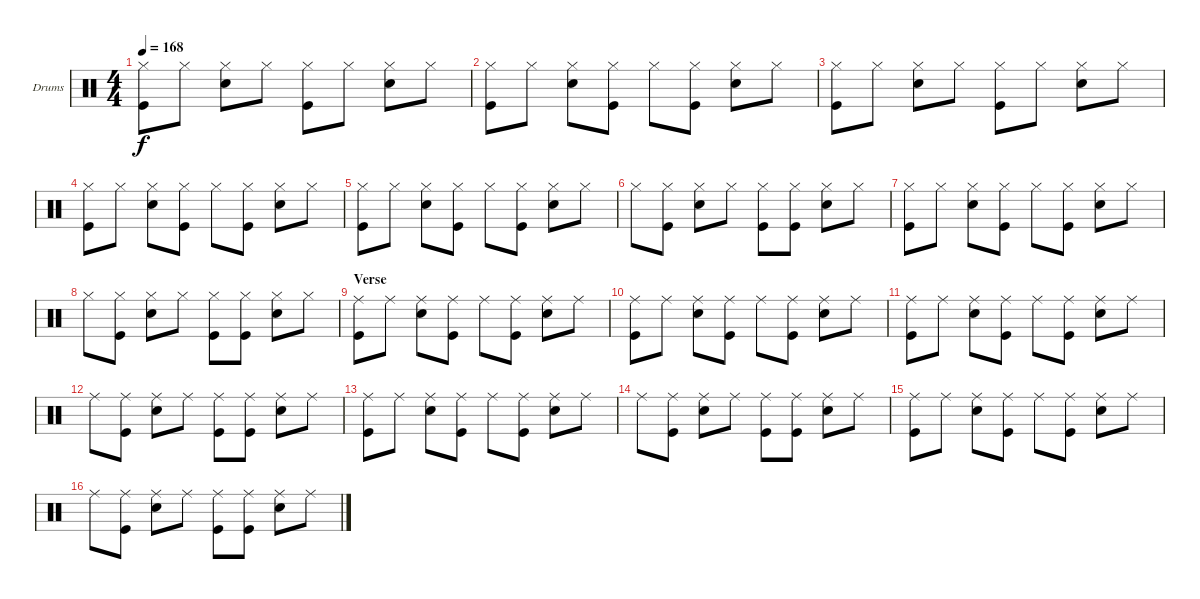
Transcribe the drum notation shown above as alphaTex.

\bracketExtendMode groupsimilarinstruments
\firstSystemTrackNameOrientation horizontal
\otherSystemsTrackNameOrientation horizontal
\track ("Drumkit" "Drums") {instrument percussion}
\staff {score}
\articulation defaults
\ts (4 4)
\tempo 168
\clef neutral
\ks c
("Kick (hit)" "Hi-Hat (closed)").8{dy f} "Hi-Hat (closed)".8 ("Snare (hit) 2" "Hi-Hat (closed)").8 "Hi-Hat (closed)".8 ("Hi-Hat (closed)" "Kick (hit)").8 "Hi-Hat (closed)".8 ("Snare (hit) 2" "Hi-Hat (closed)").8 "Hi-Hat (closed)".8 |
("Kick (hit)" "Hi-Hat (closed)").8 "Hi-Hat (closed)".8 ("Snare (hit) 2" "Hi-Hat (closed)").8 ("Kick (hit)" "Hi-Hat (closed)").8 "Hi-Hat (closed)".8 ("Kick (hit)" "Hi-Hat (closed)").8 ("Snare (hit) 2" "Hi-Hat (closed)").8 "Hi-Hat (closed)".8 |
("Kick (hit)" "Hi-Hat (closed)").8 "Hi-Hat (closed)".8 ("Snare (hit) 2" "Hi-Hat (closed)").8 "Hi-Hat (closed)".8 ("Hi-Hat (closed)" "Kick (hit)").8 "Hi-Hat (closed)".8 ("Snare (hit) 2" "Hi-Hat (closed)").8 "Hi-Hat (closed)".8 |
("Kick (hit)" "Hi-Hat (closed)").8 "Hi-Hat (closed)".8 ("Snare (hit) 2" "Hi-Hat (closed)").8 ("Kick (hit)" "Hi-Hat (closed)").8 "Hi-Hat (closed)".8 ("Kick (hit)" "Hi-Hat (closed)").8 ("Snare (hit) 2" "Hi-Hat (closed)").8 "Hi-Hat (closed)".8 |
("Kick (hit)" "Hi-Hat (closed)").8 "Hi-Hat (closed)".8 ("Snare (hit) 2" "Hi-Hat (closed)").8 ("Kick (hit)" "Hi-Hat (closed)").8 "Hi-Hat (closed)".8 ("Kick (hit)" "Hi-Hat (closed)").8 ("Snare (hit) 2" "Hi-Hat (closed)").8 "Hi-Hat (closed)".8 |
"Hi-Hat (closed)".8 ("Hi-Hat (closed)" "Kick (hit)").8 ("Snare (hit) 2" "Hi-Hat (closed)").8 "Hi-Hat (closed)".8 ("Hi-Hat (closed)" "Kick (hit)").8 ("Kick (hit)" "Hi-Hat (closed)").8 ("Snare (hit) 2" "Hi-Hat (closed)").8 "Hi-Hat (closed)".8 |
("Kick (hit)" "Hi-Hat (closed)").8 "Hi-Hat (closed)".8 ("Snare (hit) 2" "Hi-Hat (closed)").8 ("Kick (hit)" "Hi-Hat (closed)").8 "Hi-Hat (closed)".8 ("Kick (hit)" "Hi-Hat (closed)").8 ("Snare (hit) 2" "Hi-Hat (closed)").8 "Hi-Hat (closed)".8 |
"Hi-Hat (closed)".8 ("Hi-Hat (closed)" "Kick (hit)").8 ("Snare (hit) 2" "Hi-Hat (closed)").8 "Hi-Hat (closed)".8 ("Hi-Hat (closed)" "Kick (hit)").8 ("Kick (hit)" "Hi-Hat (closed)").8 ("Snare (hit) 2" "Hi-Hat (closed)").8 "Hi-Hat (closed)".8 |
\section ("" "Verse")
("Kick (hit)" "Ride (middle)").8 "Ride (middle)".8 ("Snare (hit) 2" "Ride (middle)").8 ("Kick (hit)" "Ride (middle)").8 "Ride (middle)".8 ("Kick (hit)" "Ride (middle)").8 ("Snare (hit) 2" "Ride (middle)").8 "Ride (middle)".8 |
("Kick (hit)" "Ride (middle)").8 "Ride (middle)".8 ("Snare (hit) 2" "Ride (middle)").8 ("Kick (hit)" "Ride (middle)").8 "Ride (middle)".8 ("Kick (hit)" "Ride (middle)").8 ("Snare (hit) 2" "Ride (middle)").8 "Ride (middle)".8 |
("Kick (hit)" "Ride (middle)").8 "Ride (middle)".8 ("Snare (hit) 2" "Ride (middle)").8 ("Kick (hit)" "Ride (middle)").8 "Ride (middle)".8 ("Kick (hit)" "Ride (middle)").8 ("Snare (hit) 2" "Ride (middle)").8 "Ride (middle)".8 |
"Ride (middle)".8 ("Ride (middle)" "Kick (hit)").8 ("Snare (hit) 2" "Ride (middle)").8 "Ride (middle)".8 ("Ride (middle)" "Kick (hit)").8 ("Kick (hit)" "Ride (middle)").8 ("Snare (hit) 2" "Ride (middle)").8 "Ride (middle)".8 |
("Kick (hit)" "Ride (middle)").8 "Ride (middle)".8 ("Snare (hit) 2" "Ride (middle)").8 ("Kick (hit)" "Ride (middle)").8 "Ride (middle)".8 ("Kick (hit)" "Ride (middle)").8 ("Snare (hit) 2" "Ride (middle)").8 "Ride (middle)".8 |
"Ride (middle)".8 ("Ride (middle)" "Kick (hit)").8 ("Snare (hit) 2" "Ride (middle)").8 "Ride (middle)".8 ("Ride (middle)" "Kick (hit)").8 ("Kick (hit)" "Ride (middle)").8 ("Snare (hit) 2" "Ride (middle)").8 "Ride (middle)".8 |
("Kick (hit)" "Ride (middle)").8 "Ride (middle)".8 ("Snare (hit) 2" "Ride (middle)").8 ("Kick (hit)" "Ride (middle)").8 "Ride (middle)".8 ("Kick (hit)" "Ride (middle)").8 ("Snare (hit) 2" "Ride (middle)").8 "Ride (middle)".8 |
"Ride (middle)".8 ("Ride (middle)" "Kick (hit)").8 ("Snare (hit) 2" "Ride (middle)").8 "Ride (middle)".8 ("Ride (middle)" "Kick (hit)").8 ("Kick (hit)" "Ride (middle)").8 ("Snare (hit) 2" "Ride (middle)").8 "Ride (middle)".8
